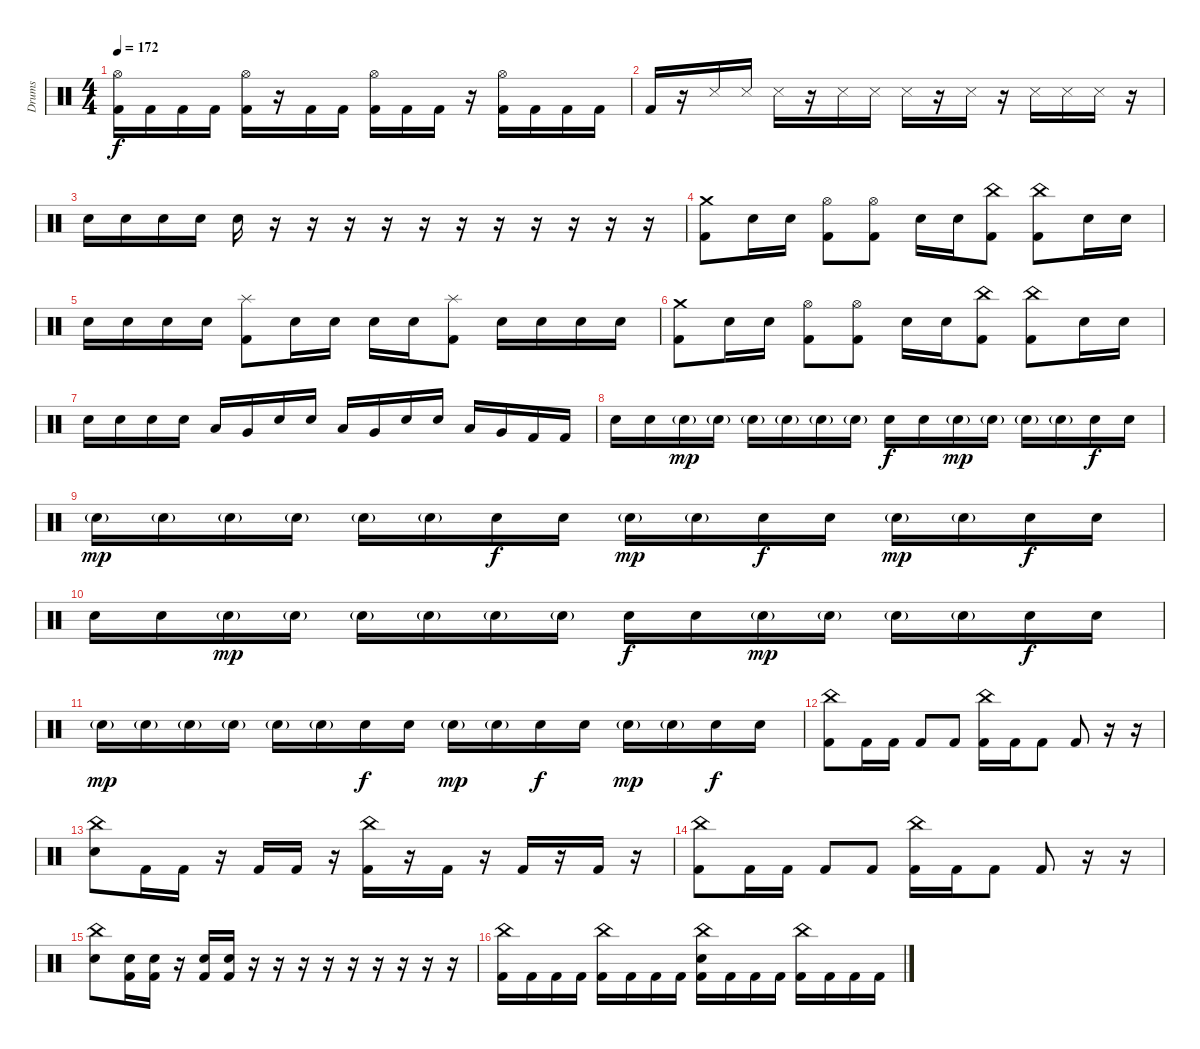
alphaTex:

\track ("Drums" "Drums") {instrument percussion}
\staff {score}
\articulation defaults
\ts (4 4)
\tempo 172
\clef neutral
\ks c
("Hi-Hat (open)" "Kick (hit) 2").16{dy f} "Kick (hit) 2".16 "Kick (hit) 2".16 "Kick (hit) 2".16 ("Hi-Hat (open)" "Kick (hit) 2").16 r.16 "Kick (hit) 2".16 "Kick (hit) 2".16 ("Hi-Hat (open)" "Kick (hit) 2").16 "Kick (hit) 2".16 "Kick (hit) 2".16 r.16 ("Hi-Hat (open)" "Kick (hit) 2").16 "Kick (hit) 2".16 "Kick (hit) 2".16 "Kick (hit) 2".16 |
"Kick (hit) 2".16 r.16 "Snare (side stick) 3".16 "Snare (side stick) 3".16 "Snare (side stick) 3".16 r.16 "Snare (side stick) 3".16 "Snare (side stick) 3".16 "Snare (side stick) 3".16 r.16 "Snare (side stick) 3".16 r.16 "Snare (side stick) 3".16 "Snare (side stick) 3".16 "Snare (side stick) 3".16 r.16 |
"Electric Snare (hit)".16 "Electric Snare (hit)".16 "Electric Snare (hit)".16 "Electric Snare (hit)".16 "Electric Snare (hit)".16 r.16 r.16 r.16 r.16 r.16 r.16 r.16 r.16 r.16 r.16 r.16 |
("Crash medium (hit)" "Kick (hit) 2").8 "Electric Snare (hit)".16 "Electric Snare (hit)".16 ("Hi-Hat (open)" "Kick (hit) 2").8 ("Hi-Hat (open)" "Kick (hit) 2").8 "Electric Snare (hit)".16 "Electric Snare (hit)".16 ("China (hit)" "Kick (hit) 2").8 ("China (hit)" "Kick (hit) 2").8 "Electric Snare (hit)".16 "Electric Snare (hit)".16 |
"Electric Snare (hit)".16 "Electric Snare (hit)".16 "Electric Snare (hit)".16 "Electric Snare (hit)".16 ("Splash (hit)" "Kick (hit) 2").8 "Electric Snare (hit)".16 "Electric Snare (hit)".16 "Electric Snare (hit)".16 "Electric Snare (hit)".16 ("Splash (hit)" "Kick (hit) 2").8 "Electric Snare (hit)".16 "Electric Snare (hit)".16 "Electric Snare (hit)".16 "Electric Snare (hit)".16 |
("Crash medium (hit)" "Kick (hit) 2").8 "Electric Snare (hit)".16 "Electric Snare (hit)".16 ("Hi-Hat (open)" "Kick (hit) 2").8 ("Hi-Hat (open)" "Kick (hit) 2").8 "Electric Snare (hit)".16 "Electric Snare (hit)".16 ("China (hit)" "Kick (hit) 2").8 ("China (hit)" "Kick (hit) 2").8 "Electric Snare (hit)".16 "Electric Snare (hit)".16 |
"Electric Snare (hit)".16 "Electric Snare (hit)".16 "Electric Snare (hit)".16 "Electric Snare (hit)".16 "Low Tom (hit)".16 "Very Low Tom (hit)".16 "Electric Snare (hit)".16 "Electric Snare (hit)".16 "Low Tom (hit)".16 "Very Low Tom (hit)".16 "Electric Snare (hit)".16 "Electric Snare (hit)".16 "Low Tom (hit)".16 "Very Low Tom (hit)".16 "Kick (hit) 2".16 "Kick (hit) 2".16 |
"Electric Snare (hit)".16 "Electric Snare (hit)".16 "Snare (hit) 2"{g}.16{dy mp} "Snare (hit) 2"{g}.16 "Snare (hit) 2"{g}.16 "Snare (hit) 2"{g}.16 "Snare (hit) 2"{g}.16 "Snare (hit) 2"{g}.16 "Electric Snare (hit)".16{dy f} "Electric Snare (hit)".16 "Snare (hit) 2"{g}.16{dy mp} "Snare (hit) 2"{g}.16 "Snare (hit) 2"{g}.16 "Snare (hit) 2"{g}.16 "Electric Snare (hit)".16{dy f} "Electric Snare (hit)".16 |
"Snare (hit) 2"{g}.16{dy mp} "Snare (hit) 2"{g}.16 "Snare (hit) 2"{g}.16 "Snare (hit) 2"{g}.16 "Snare (hit) 2"{g}.16 "Snare (hit) 2"{g}.16 "Electric Snare (hit)".16{dy f} "Electric Snare (hit)".16 "Snare (hit) 2"{g}.16{dy mp} "Snare (hit) 2"{g}.16 "Electric Snare (hit)".16{dy f} "Electric Snare (hit)".16 "Snare (hit) 2"{g}.16{dy mp} "Snare (hit) 2"{g}.16 "Electric Snare (hit)".16{dy f} "Electric Snare (hit)".16 |
"Electric Snare (hit)".16 "Electric Snare (hit)".16 "Snare (hit) 2"{g}.16{dy mp} "Snare (hit) 2"{g}.16 "Snare (hit) 2"{g}.16 "Snare (hit) 2"{g}.16 "Snare (hit) 2"{g}.16 "Snare (hit) 2"{g}.16 "Electric Snare (hit)".16{dy f} "Electric Snare (hit)".16 "Snare (hit) 2"{g}.16{dy mp} "Snare (hit) 2"{g}.16 "Snare (hit) 2"{g}.16 "Snare (hit) 2"{g}.16 "Electric Snare (hit)".16{dy f} "Electric Snare (hit)".16 |
"Snare (hit) 2"{g}.16{dy mp} "Snare (hit) 2"{g}.16 "Snare (hit) 2"{g}.16 "Snare (hit) 2"{g}.16 "Snare (hit) 2"{g}.16 "Snare (hit) 2"{g}.16 "Electric Snare (hit)".16{dy f} "Electric Snare (hit)".16 "Snare (hit) 2"{g}.16{dy mp} "Snare (hit) 2"{g}.16 "Electric Snare (hit)".16{dy f} "Electric Snare (hit)".16 "Snare (hit) 2"{g}.16{dy mp} "Snare (hit) 2"{g}.16 "Electric Snare (hit)".16{dy f} "Electric Snare (hit)".16 |
("China (hit)" "Kick (hit) 2").8 "Kick (hit) 2".16 "Kick (hit) 2".16 "Kick (hit) 2".8 "Kick (hit) 2".8 ("China (hit)" "Kick (hit) 2").16 "Kick (hit) 2".16 "Kick (hit) 2".8 "Kick (hit) 2".8 r.16 r.16 |
("China (hit)" "Electric Snare (hit)").8 "Kick (hit) 2".16 "Kick (hit) 2".16 r.16 "Kick (hit) 2".16 "Kick (hit) 2".16 r.16 ("China (hit)" "Kick (hit) 2").16 r.16 "Kick (hit) 2".16 r.16 "Kick (hit) 2".16 r.16 "Kick (hit) 2".16 r.16 |
("China (hit)" "Kick (hit) 2").8 "Kick (hit) 2".16 "Kick (hit) 2".16 "Kick (hit) 2".8 "Kick (hit) 2".8 ("China (hit)" "Kick (hit) 2").16 "Kick (hit) 2".16 "Kick (hit) 2".8 "Kick (hit) 2".8 r.16 r.16 |
("China (hit)" "Electric Snare (hit)").8 ("Electric Snare (hit)" "Kick (hit) 2").16 ("Electric Snare (hit)" "Kick (hit) 2").16 r.16 ("Electric Snare (hit)" "Kick (hit) 2").16 ("Electric Snare (hit)" "Kick (hit) 2").16 r.16 r.16 r.16 r.16 r.16 r.16 r.16 r.16 r.16 |
("China (hit)" "Kick (hit) 2").16 "Kick (hit) 2".16 "Kick (hit) 2".16 "Kick (hit) 2".16 ("China (hit)" "Kick (hit) 2").16 "Kick (hit) 2".16 "Kick (hit) 2".16 "Kick (hit) 2".16 ("China (hit)" "Electric Snare (hit)" "Kick (hit) 2").16 "Kick (hit) 2".16 "Kick (hit) 2".16 "Kick (hit) 2".16 ("China (hit)" "Kick (hit) 2").16 "Kick (hit) 2".16 "Kick (hit) 2".16 "Kick (hit) 2".16
